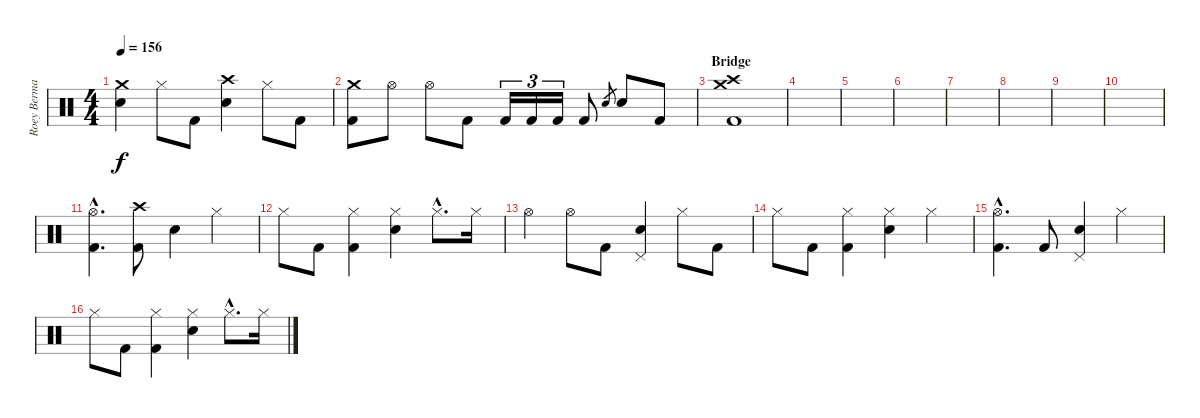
\track ("Roey Berman" "Roey Berma") {instrument percussion}
\staff {score}
\articulation defaults
\ts (4 4)
\tempo 156
\clef neutral
\ks c
("Crash medium (hit)" "Electric Snare (hit)").4{dy f} "Hi-Hat (closed)".8 "Kick (hit) 2".8 ("Crash high (hit)" "Electric Snare (hit)").4 "Hi-Hat (closed)".8 "Kick (hit) 2".8 |
("Crash medium (hit)" "Kick (hit) 2").8 "Hi-Hat (open)".8 "Hi-Hat (open)".8 "Kick (hit) 2".8 "Kick (hit) 2".16{tu (3 2)} "Kick (hit) 2".16{tu (3 2)} "Kick (hit) 2".16{tu (3 2)} "Kick (hit) 2".8 "Electric Snare (hit)".8{gr} "Electric Snare (hit)".8 "Kick (hit) 2".8 |
\section ("" "Bridge")
("Crash high (hit)" "Crash medium (hit)" "Kick (hit) 2").1 |
|
|
|
|
|
|
|
("Hi-Hat (open)"{hac} "Kick (hit) 2"{hac}).4{d} ("Crash high (hit)" "Kick (hit) 2").8 "Electric Snare (hit)".4 "Hi-Hat (closed)".4 |
"Hi-Hat (closed)".8 "Kick (hit) 2".8 ("Hi-Hat (closed)" "Kick (hit) 2").4 ("Hi-Hat (closed)" "Electric Snare (hit)").4 "Hi-Hat (closed)"{hac}.8{d} "Hi-Hat (closed)".16 |
"Hi-Hat (open)".4 "Hi-Hat (open)".8 "Kick (hit) 2".8 ("Pedal Hi-Hat (hit)" "Electric Snare (hit)").4 "Hi-Hat (closed)".8 "Kick (hit) 2".8 |
"Hi-Hat (closed)".8 "Kick (hit) 2".8 ("Hi-Hat (closed)" "Kick (hit) 2").4 ("Hi-Hat (closed)" "Electric Snare (hit)").4 "Hi-Hat (closed)".4 |
("Hi-Hat (open)"{hac} "Kick (hit) 2"{hac}).4{d} "Kick (hit) 2".8 ("Pedal Hi-Hat (hit)" "Electric Snare (hit)").4 "Hi-Hat (closed)".4 |
"Hi-Hat (closed)".8 "Kick (hit) 2".8 ("Hi-Hat (closed)" "Kick (hit) 2").4 ("Hi-Hat (closed)" "Electric Snare (hit)").4 "Hi-Hat (closed)"{hac}.8{d} "Hi-Hat (closed)".16
